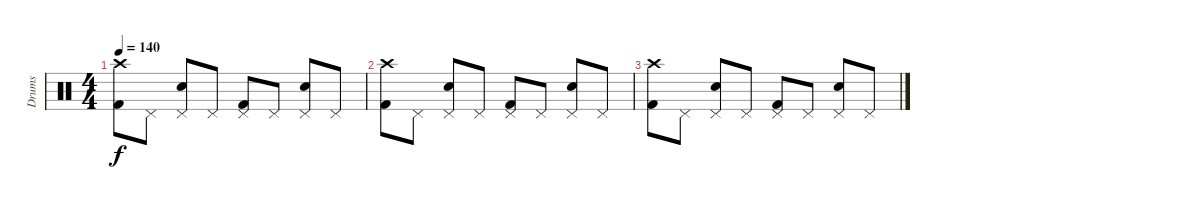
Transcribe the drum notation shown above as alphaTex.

\track ("Drums" "Drums") {instrument percussion}
\staff {score}
\articulation defaults
\ts (4 4)
\tempo 140
\clef neutral
\ks c
("Crash high (hit)" "Kick (hit) 2").8{dy f volume 8} "Pedal Hi-Hat (hit)".8 ("Pedal Hi-Hat (hit)" "Snare (hit) 2").8 "Pedal Hi-Hat (hit)".8 ("Pedal Hi-Hat (hit)" "Kick (hit) 2").8 "Pedal Hi-Hat (hit)".8 ("Pedal Hi-Hat (hit)" "Snare (hit) 2").8 "Pedal Hi-Hat (hit)".8 |
("Crash high (hit)" "Kick (hit) 2").8{volume 7} "Pedal Hi-Hat (hit)".8 ("Pedal Hi-Hat (hit)" "Snare (hit) 2").8 "Pedal Hi-Hat (hit)".8 ("Pedal Hi-Hat (hit)" "Kick (hit) 2").8{volume 5} "Pedal Hi-Hat (hit)".8 ("Pedal Hi-Hat (hit)" "Snare (hit) 2").8 "Pedal Hi-Hat (hit)".8 |
("Crash high (hit)" "Kick (hit) 2").8{volume 3} "Pedal Hi-Hat (hit)".8 ("Pedal Hi-Hat (hit)" "Snare (hit) 2").8 "Pedal Hi-Hat (hit)".8 ("Pedal Hi-Hat (hit)" "Kick (hit) 2").8{volume 2} "Pedal Hi-Hat (hit)".8 ("Pedal Hi-Hat (hit)" "Snare (hit) 2").8 "Pedal Hi-Hat (hit)".8{volume 0}
